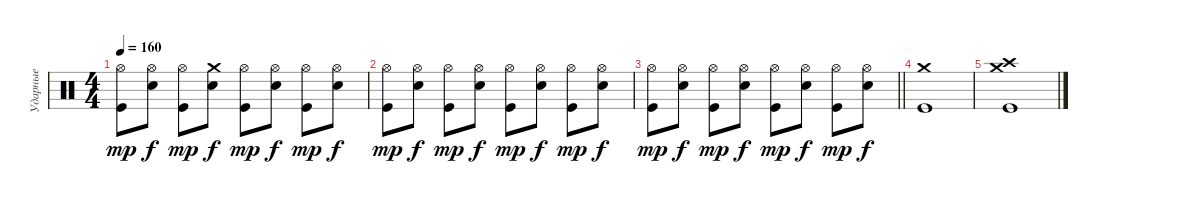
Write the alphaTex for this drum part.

\track ("Ударные" "Ударные") {instrument percussion}
\staff {score}
\articulation defaults
\ts (4 4)
\tempo 160
\clef neutral
\ks c
("Hi-Hat (open)" "Kick (hit)").8{dy mp} ("Hi-Hat (open)" "Electric Snare (hit)").8{dy f} ("Hi-Hat (open)" "Kick (hit)").8{dy mp} ("Crash medium (hit)" "Electric Snare (hit)").8{dy f} ("Hi-Hat (open)" "Kick (hit)").8{dy mp} ("Hi-Hat (open)" "Electric Snare (hit)").8{dy f} ("Hi-Hat (open)" "Kick (hit)").8{dy mp} ("Hi-Hat (open)" "Electric Snare (hit)").8{dy f} |
("Hi-Hat (open)" "Kick (hit)").8{dy mp} ("Hi-Hat (open)" "Electric Snare (hit)").8{dy f} ("Hi-Hat (open)" "Kick (hit)").8{dy mp} ("Hi-Hat (open)" "Electric Snare (hit)").8{dy f} ("Hi-Hat (open)" "Kick (hit)").8{dy mp} ("Hi-Hat (open)" "Electric Snare (hit)").8{dy f} ("Hi-Hat (open)" "Kick (hit)").8{dy mp} ("Hi-Hat (open)" "Electric Snare (hit)").8{dy f} |
\barLineRight lightlight
("Hi-Hat (open)" "Kick (hit)").8{dy mp} ("Hi-Hat (open)" "Electric Snare (hit)").8{dy f} ("Hi-Hat (open)" "Kick (hit)").8{dy mp} ("Hi-Hat (open)" "Electric Snare (hit)").8{dy f} ("Hi-Hat (open)" "Kick (hit)").8{dy mp} ("Hi-Hat (open)" "Electric Snare (hit)").8{dy f} ("Hi-Hat (open)" "Kick (hit)").8{dy mp} ("Hi-Hat (open)" "Electric Snare (hit)").8{dy f} |
("Crash medium (hit)" "Kick (hit)").1 |
("Crash medium (hit)" "Kick (hit)" "Crash high (hit)").1
